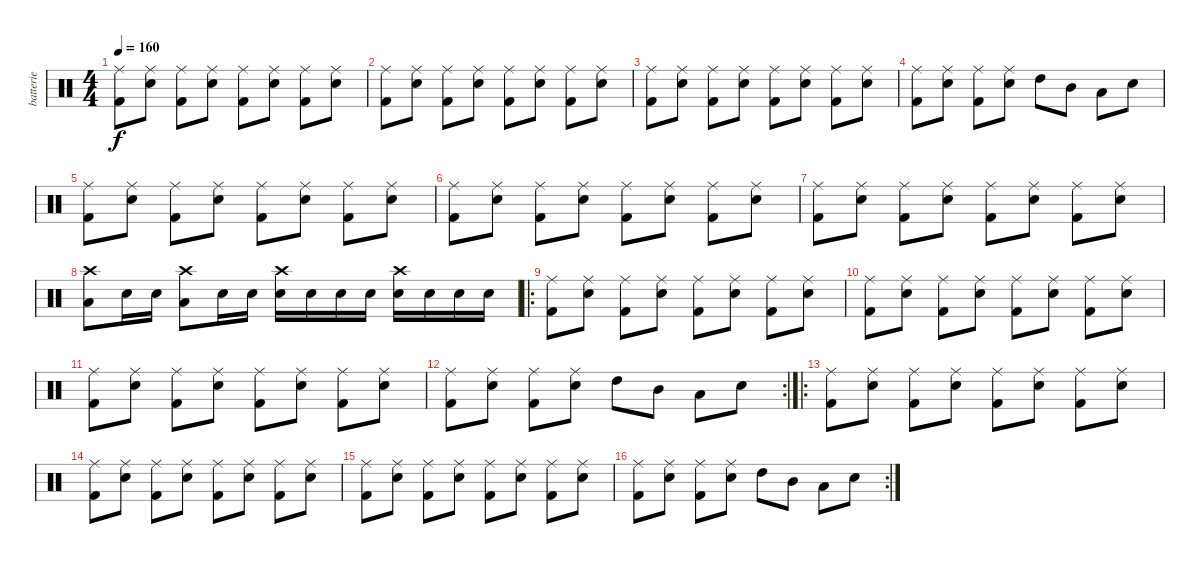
\track ("batterie" "batterie") {instrument percussion}
\staff {score}
\articulation defaults
\ts (4 4)
\tempo 160
\clef neutral
\ks c
("Kick (hit) 2" "Ride (middle)").8{dy f} ("Snare (hit) 2" "Ride (middle)").8 ("Kick (hit) 2" "Ride (middle)").8 ("Snare (hit) 2" "Ride (middle)").8 ("Kick (hit) 2" "Ride (middle)").8 ("Snare (hit) 2" "Ride (middle)").8 ("Kick (hit) 2" "Ride (middle)").8 ("Snare (hit) 2" "Ride (middle)").8 |
("Kick (hit) 2" "Ride (middle)").8 ("Snare (hit) 2" "Ride (middle)").8 ("Kick (hit) 2" "Ride (middle)").8 ("Snare (hit) 2" "Ride (middle)").8 ("Kick (hit) 2" "Ride (middle)").8 ("Snare (hit) 2" "Ride (middle)").8 ("Kick (hit) 2" "Ride (middle)").8 ("Snare (hit) 2" "Ride (middle)").8 |
("Kick (hit) 2" "Ride (middle)").8 ("Snare (hit) 2" "Ride (middle)").8 ("Kick (hit) 2" "Ride (middle)").8 ("Snare (hit) 2" "Ride (middle)").8 ("Kick (hit) 2" "Ride (middle)").8 ("Snare (hit) 2" "Ride (middle)").8 ("Kick (hit) 2" "Ride (middle)").8 ("Snare (hit) 2" "Ride (middle)").8 |
("Kick (hit) 2" "Ride (middle)").8 ("Snare (hit) 2" "Ride (middle)").8 ("Kick (hit) 2" "Ride (middle)").8 ("Snare (hit) 2" "Ride (middle)").8 "High Tom (hit)".8 "Mid Tom (hit)".8 "Low Tom (hit)".8 "Snare (hit) 2".8 |
("Kick (hit) 2" "Ride (middle)").8 ("Snare (hit) 2" "Ride (middle)").8 ("Kick (hit) 2" "Ride (middle)").8 ("Snare (hit) 2" "Ride (middle)").8 ("Kick (hit) 2" "Ride (middle)").8 ("Snare (hit) 2" "Ride (middle)").8 ("Kick (hit) 2" "Ride (middle)").8 ("Snare (hit) 2" "Ride (middle)").8 |
("Kick (hit) 2" "Ride (middle)").8 ("Snare (hit) 2" "Ride (middle)").8 ("Kick (hit) 2" "Ride (middle)").8 ("Snare (hit) 2" "Ride (middle)").8 ("Kick (hit) 2" "Ride (middle)").8 ("Snare (hit) 2" "Ride (middle)").8 ("Kick (hit) 2" "Ride (middle)").8 ("Snare (hit) 2" "Ride (middle)").8 |
("Kick (hit) 2" "Ride (middle)").8 ("Snare (hit) 2" "Ride (middle)").8 ("Kick (hit) 2" "Ride (middle)").8 ("Snare (hit) 2" "Ride (middle)").8 ("Kick (hit) 2" "Ride (middle)").8 ("Snare (hit) 2" "Ride (middle)").8 ("Kick (hit) 2" "Ride (middle)").8 ("Snare (hit) 2" "Ride (middle)").8 |
("Low Tom (hit)" "Crash high (hit)").8 "Snare (hit) 2".16 "Snare (hit) 2".16 ("Low Tom (hit)" "Crash high (hit)").8 "Snare (hit) 2".16 "Snare (hit) 2".16 ("Snare (hit) 2" "Crash high (hit)").16 "Snare (hit) 2".16 "Snare (hit) 2".16 "Snare (hit) 2".16 ("Snare (hit) 2" "Crash high (hit)").16 "Snare (hit) 2".16 "Snare (hit) 2".16 "Snare (hit) 2".16 |
\ro
("Kick (hit) 2" "Ride (middle)").8 ("Snare (hit) 2" "Ride (middle)").8 ("Kick (hit) 2" "Ride (middle)").8 ("Snare (hit) 2" "Ride (middle)").8 ("Kick (hit) 2" "Ride (middle)").8 ("Snare (hit) 2" "Ride (middle)").8 ("Kick (hit) 2" "Ride (middle)").8 ("Snare (hit) 2" "Ride (middle)").8 |
("Kick (hit) 2" "Ride (middle)").8 ("Snare (hit) 2" "Ride (middle)").8 ("Kick (hit) 2" "Ride (middle)").8 ("Snare (hit) 2" "Ride (middle)").8 ("Kick (hit) 2" "Ride (middle)").8 ("Snare (hit) 2" "Ride (middle)").8 ("Kick (hit) 2" "Ride (middle)").8 ("Snare (hit) 2" "Ride (middle)").8 |
("Kick (hit) 2" "Ride (middle)").8 ("Snare (hit) 2" "Ride (middle)").8 ("Kick (hit) 2" "Ride (middle)").8 ("Snare (hit) 2" "Ride (middle)").8 ("Kick (hit) 2" "Ride (middle)").8 ("Snare (hit) 2" "Ride (middle)").8 ("Kick (hit) 2" "Ride (middle)").8 ("Snare (hit) 2" "Ride (middle)").8 |
\rc 2
("Kick (hit) 2" "Ride (middle)").8 ("Snare (hit) 2" "Ride (middle)").8 ("Kick (hit) 2" "Ride (middle)").8 ("Snare (hit) 2" "Ride (middle)").8 "High Tom (hit)".8 "Mid Tom (hit)".8 "Low Tom (hit)".8 "Snare (hit) 2".8 |
\ro
("Kick (hit) 2" "Ride (middle)").8 ("Snare (hit) 2" "Ride (middle)").8 ("Kick (hit) 2" "Ride (middle)").8 ("Snare (hit) 2" "Ride (middle)").8 ("Kick (hit) 2" "Ride (middle)").8 ("Snare (hit) 2" "Ride (middle)").8 ("Kick (hit) 2" "Ride (middle)").8 ("Snare (hit) 2" "Ride (middle)").8 |
("Kick (hit) 2" "Ride (middle)").8 ("Snare (hit) 2" "Ride (middle)").8 ("Kick (hit) 2" "Ride (middle)").8 ("Snare (hit) 2" "Ride (middle)").8 ("Kick (hit) 2" "Ride (middle)").8 ("Snare (hit) 2" "Ride (middle)").8 ("Kick (hit) 2" "Ride (middle)").8 ("Snare (hit) 2" "Ride (middle)").8 |
("Kick (hit) 2" "Ride (middle)").8 ("Snare (hit) 2" "Ride (middle)").8 ("Kick (hit) 2" "Ride (middle)").8 ("Snare (hit) 2" "Ride (middle)").8 ("Kick (hit) 2" "Ride (middle)").8 ("Snare (hit) 2" "Ride (middle)").8 ("Kick (hit) 2" "Ride (middle)").8 ("Snare (hit) 2" "Ride (middle)").8 |
\rc 2
("Kick (hit) 2" "Ride (middle)").8 ("Snare (hit) 2" "Ride (middle)").8 ("Kick (hit) 2" "Ride (middle)").8 ("Snare (hit) 2" "Ride (middle)").8 "High Tom (hit)".8 "Mid Tom (hit)".8 "Low Tom (hit)".8 "Snare (hit) 2".8
